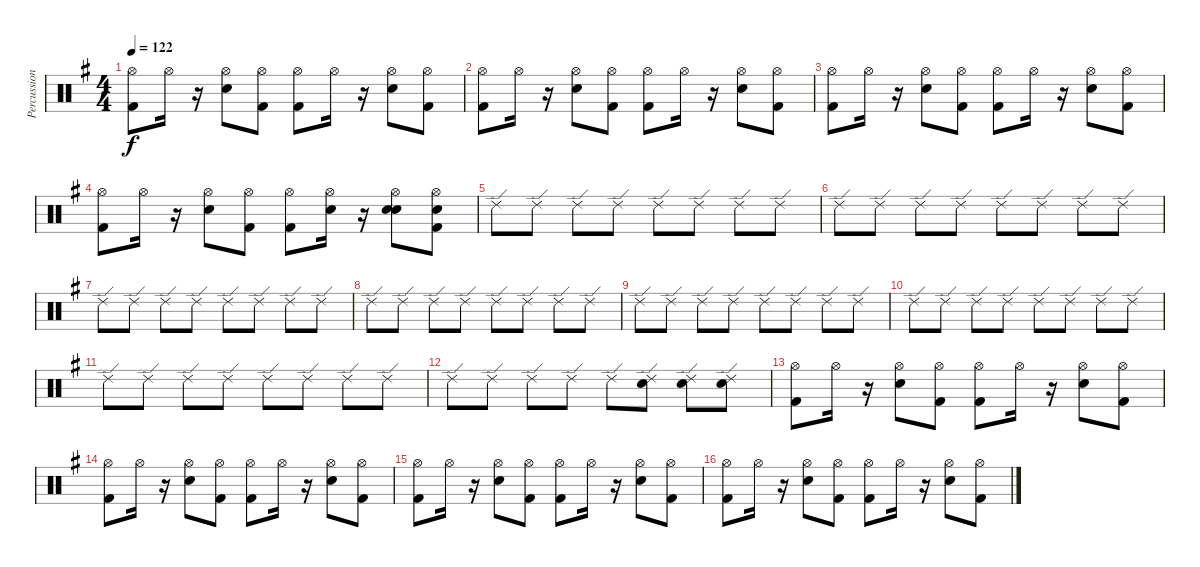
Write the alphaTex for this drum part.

\track ("Percussion" "Percussion") {instrument percussion}
\staff {score}
\articulation defaults
\ts (4 4)
\tempo 122
\clef neutral
\ks g
("Hi-Hat (open)" "Kick (hit) 2").8{dy f} "Hi-Hat (open)".16 r.16 ("Electric Snare (hit)" "Hi-Hat (open)").8 ("Kick (hit) 2" "Hi-Hat (open)").8 ("Kick (hit) 2" "Hi-Hat (open)").8 "Hi-Hat (open)".16 r.16 ("Electric Snare (hit)" "Hi-Hat (open)").8 ("Kick (hit) 2" "Hi-Hat (open)").8 |
("Kick (hit) 2" "Hi-Hat (open)").8 "Hi-Hat (open)".16 r.16 ("Electric Snare (hit)" "Hi-Hat (open)").8 ("Kick (hit) 2" "Hi-Hat (open)").8 ("Kick (hit) 2" "Hi-Hat (open)").8 "Hi-Hat (open)".16 r.16 ("Electric Snare (hit)" "Hi-Hat (open)").8 ("Kick (hit) 2" "Hi-Hat (open)").8 |
("Hi-Hat (open)" "Kick (hit) 2").8 "Hi-Hat (open)".16 r.16 ("Electric Snare (hit)" "Hi-Hat (open)").8 ("Kick (hit) 2" "Hi-Hat (open)").8 ("Kick (hit) 2" "Hi-Hat (open)").8 "Hi-Hat (open)".16 r.16 ("Electric Snare (hit)" "Hi-Hat (open)").8 ("Kick (hit) 2" "Hi-Hat (open)").8 |
("Kick (hit) 2" "Hi-Hat (open)").8 "Hi-Hat (open)".16 r.16 ("Electric Snare (hit)" "Hi-Hat (open)").8 ("Kick (hit) 2" "Hi-Hat (open)").8 ("Kick (hit) 2" "Hi-Hat (open)").8 ("Hi-Hat (open)" "Electric Snare (hit)").16 r.16 ("Electric Snare (hit)" "Hi-Hat (open)" "Electric Snare (hit)").8 ("Kick (hit) 2" "Hi-Hat (open)" "Electric Snare (hit)").8 |
"Ride (edge) 2".8 "Ride (edge) 2".8 "Ride (edge) 2".8 "Ride (edge) 2".8 "Ride (edge) 2".8 "Ride (edge) 2".8 "Ride (edge) 2".8 "Ride (edge) 2".8 |
"Ride (edge) 2".8 "Ride (edge) 2".8 "Ride (edge) 2".8 "Ride (edge) 2".8 "Ride (edge) 2".8 "Ride (edge) 2".8 "Ride (edge) 2".8 "Ride (edge) 2".8 |
"Ride (edge) 2".8 "Ride (edge) 2".8 "Ride (edge) 2".8 "Ride (edge) 2".8 "Ride (edge) 2".8 "Ride (edge) 2".8 "Ride (edge) 2".8 "Ride (edge) 2".8 |
"Ride (edge) 2".8 "Ride (edge) 2".8 "Ride (edge) 2".8 "Ride (edge) 2".8 "Ride (edge) 2".8 "Ride (edge) 2".8 "Ride (edge) 2".8 "Ride (edge) 2".8 |
"Ride (edge) 2".8 "Ride (edge) 2".8 "Ride (edge) 2".8 "Ride (edge) 2".8 "Ride (edge) 2".8 "Ride (edge) 2".8 "Ride (edge) 2".8 "Ride (edge) 2".8 |
"Ride (edge) 2".8 "Ride (edge) 2".8 "Ride (edge) 2".8 "Ride (edge) 2".8 "Ride (edge) 2".8 "Ride (edge) 2".8 "Ride (edge) 2".8 "Ride (edge) 2".8 |
"Ride (edge) 2".8 "Ride (edge) 2".8 "Ride (edge) 2".8 "Ride (edge) 2".8 "Ride (edge) 2".8 "Ride (edge) 2".8 "Ride (edge) 2".8 "Ride (edge) 2".8 |
"Ride (edge) 2".8 "Ride (edge) 2".8 "Ride (edge) 2".8 "Ride (edge) 2".8 "Ride (edge) 2".8 ("Ride (edge) 2" "Electric Snare (hit)").8 ("Ride (edge) 2" "Electric Snare (hit)").8 ("Ride (edge) 2" "Electric Snare (hit)").8 |
("Hi-Hat (open)" "Kick (hit) 2").8 "Hi-Hat (open)".16 r.16 ("Electric Snare (hit)" "Hi-Hat (open)").8 ("Kick (hit) 2" "Hi-Hat (open)").8 ("Kick (hit) 2" "Hi-Hat (open)").8 "Hi-Hat (open)".16 r.16 ("Electric Snare (hit)" "Hi-Hat (open)").8 ("Kick (hit) 2" "Hi-Hat (open)").8 |
("Kick (hit) 2" "Hi-Hat (open)").8 "Hi-Hat (open)".16 r.16 ("Electric Snare (hit)" "Hi-Hat (open)").8 ("Kick (hit) 2" "Hi-Hat (open)").8 ("Kick (hit) 2" "Hi-Hat (open)").8 "Hi-Hat (open)".16 r.16 ("Electric Snare (hit)" "Hi-Hat (open)").8 ("Kick (hit) 2" "Hi-Hat (open)").8 |
("Kick (hit) 2" "Hi-Hat (open)").8 "Hi-Hat (open)".16 r.16 ("Electric Snare (hit)" "Hi-Hat (open)").8 ("Kick (hit) 2" "Hi-Hat (open)").8 ("Kick (hit) 2" "Hi-Hat (open)").8 "Hi-Hat (open)".16 r.16 ("Electric Snare (hit)" "Hi-Hat (open)").8 ("Kick (hit) 2" "Hi-Hat (open)").8 |
("Kick (hit) 2" "Hi-Hat (open)").8 "Hi-Hat (open)".16 r.16 ("Electric Snare (hit)" "Hi-Hat (open)").8 ("Kick (hit) 2" "Hi-Hat (open)").8 ("Kick (hit) 2" "Hi-Hat (open)").8 "Hi-Hat (open)".16 r.16 ("Electric Snare (hit)" "Hi-Hat (open)").8 ("Kick (hit) 2" "Hi-Hat (open)").8
